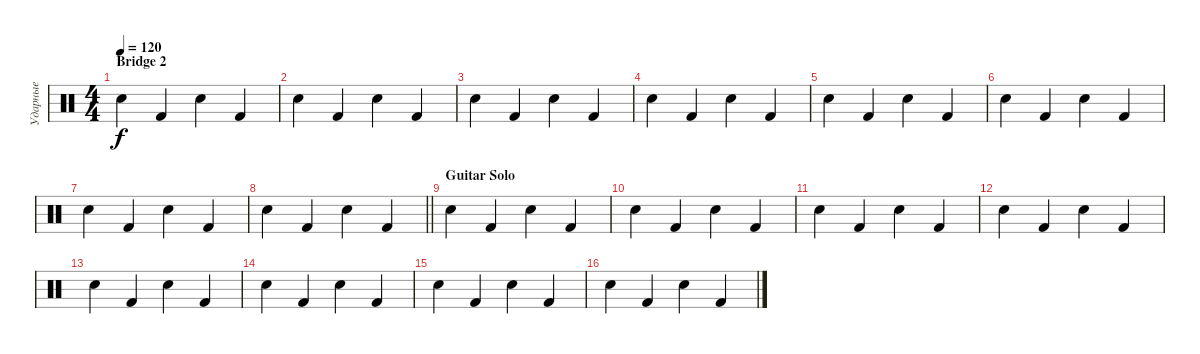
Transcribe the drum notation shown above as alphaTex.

\track ("Ударные" "Ударные") {instrument percussion}
\staff {score}
\articulation defaults
\ts (4 4)
\section ("" "Bridge 2")
\tempo 120
\clef neutral
\ks c "Electric Snare (hit)".4{dy f} "Kick (hit) 2".4 "Electric Snare (hit)".4 "Kick (hit) 2".4
|
"Electric Snare (hit)".4 "Kick (hit) 2".4 "Electric Snare (hit)".4 "Kick (hit) 2".4 |
"Electric Snare (hit)".4 "Kick (hit) 2".4 "Electric Snare (hit)".4 "Kick (hit) 2".4 |
"Electric Snare (hit)".4 "Kick (hit) 2".4 "Electric Snare (hit)".4 "Kick (hit) 2".4 |
"Electric Snare (hit)".4 "Kick (hit) 2".4 "Electric Snare (hit)".4 "Kick (hit) 2".4 |
"Electric Snare (hit)".4 "Kick (hit) 2".4 "Electric Snare (hit)".4 "Kick (hit) 2".4 |
"Electric Snare (hit)".4 "Kick (hit) 2".4 "Electric Snare (hit)".4 "Kick (hit) 2".4 |
\barLineRight lightlight "Electric Snare (hit)".4 "Kick (hit) 2".4 "Electric Snare (hit)".4 "Kick (hit) 2".4
|
\section ("" "Guitar Solo")
"Electric Snare (hit)".4 "Kick (hit) 2".4 "Electric Snare (hit)".4 "Kick (hit) 2".4 |
"Electric Snare (hit)".4 "Kick (hit) 2".4 "Electric Snare (hit)".4 "Kick (hit) 2".4 |
"Electric Snare (hit)".4 "Kick (hit) 2".4 "Electric Snare (hit)".4 "Kick (hit) 2".4 |
"Electric Snare (hit)".4 "Kick (hit) 2".4 "Electric Snare (hit)".4 "Kick (hit) 2".4 |
"Electric Snare (hit)".4 "Kick (hit) 2".4 "Electric Snare (hit)".4 "Kick (hit) 2".4 |
"Electric Snare (hit)".4 "Kick (hit) 2".4 "Electric Snare (hit)".4 "Kick (hit) 2".4 |
"Electric Snare (hit)".4 "Kick (hit) 2".4 "Electric Snare (hit)".4 "Kick (hit) 2".4 |
"Electric Snare (hit)".4 "Kick (hit) 2".4 "Electric Snare (hit)".4 "Kick (hit) 2".4
